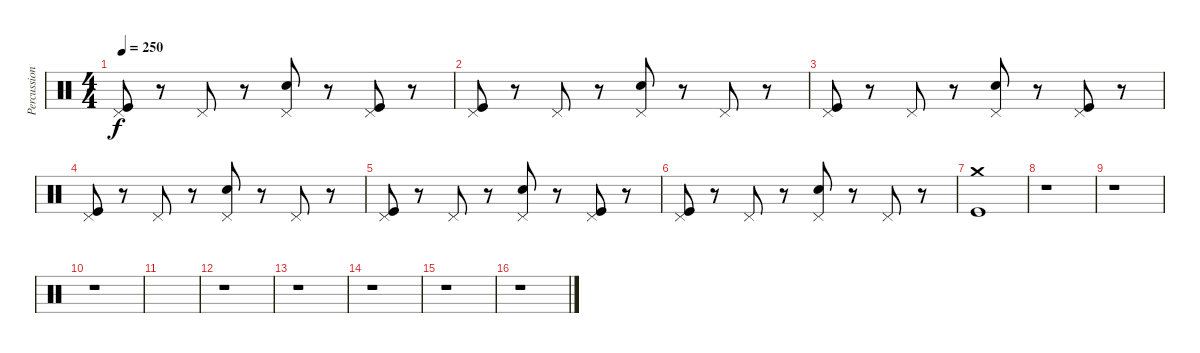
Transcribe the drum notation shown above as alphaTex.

\track ("Percussions" "Percussion") {instrument percussion}
\staff {score}
\articulation defaults
\ts (4 4)
\tempo 250
\clef neutral
\ks c
("Pedal Hi-Hat (hit)" "Kick (hit)").8{dy f} r.8 "Pedal Hi-Hat (hit)".8 r.8 ("Pedal Hi-Hat (hit)" "Snare (hit) 2").8 r.8 ("Pedal Hi-Hat (hit)" "Kick (hit)").8 r.8 |
("Pedal Hi-Hat (hit)" "Kick (hit)").8 r.8 "Pedal Hi-Hat (hit)".8 r.8 ("Pedal Hi-Hat (hit)" "Snare (hit) 2").8 r.8 "Pedal Hi-Hat (hit)".8 r.8 |
("Pedal Hi-Hat (hit)" "Kick (hit)").8 r.8 "Pedal Hi-Hat (hit)".8 r.8 ("Pedal Hi-Hat (hit)" "Snare (hit) 2").8 r.8 ("Pedal Hi-Hat (hit)" "Kick (hit)").8 r.8 |
("Pedal Hi-Hat (hit)" "Kick (hit)").8 r.8 "Pedal Hi-Hat (hit)".8 r.8 ("Pedal Hi-Hat (hit)" "Snare (hit) 2").8 r.8 "Pedal Hi-Hat (hit)".8 r.8 |
("Pedal Hi-Hat (hit)" "Kick (hit)").8 r.8 "Pedal Hi-Hat (hit)".8 r.8 ("Pedal Hi-Hat (hit)" "Snare (hit) 2").8 r.8 ("Pedal Hi-Hat (hit)" "Kick (hit)").8 r.8 |
("Pedal Hi-Hat (hit)" "Kick (hit)").8 r.8 "Pedal Hi-Hat (hit)".8 r.8 ("Pedal Hi-Hat (hit)" "Snare (hit) 2").8 r.8 "Pedal Hi-Hat (hit)".8 r.8 |
("Crash medium (hit)" "Kick (hit)").1 |
r.1 |
r.1 |
r.1 |
|
r.1 |
r.1 |
r.1 |
r.1 |
r.1
